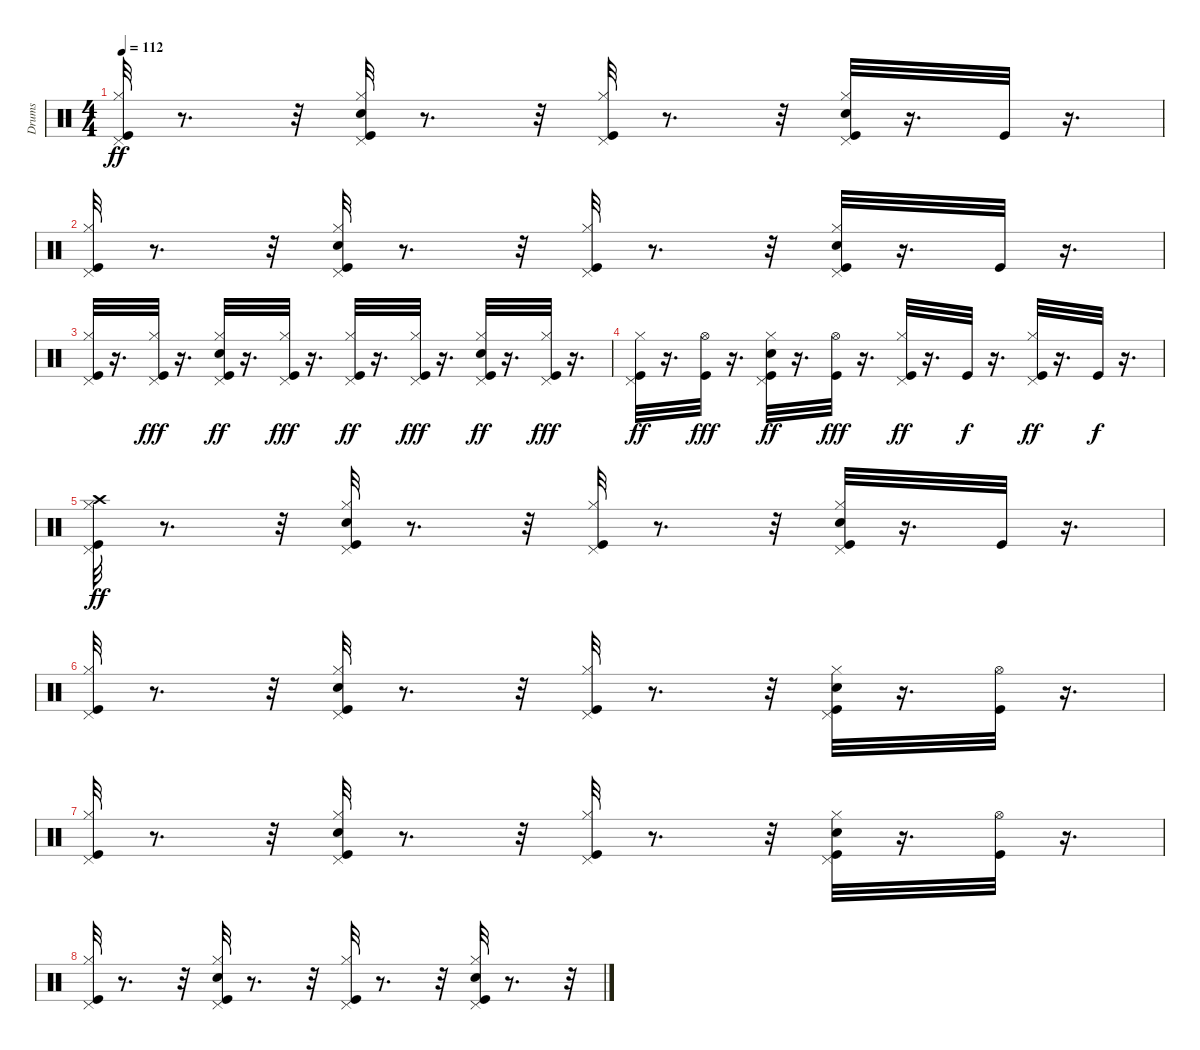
\track ("Drums" "Drums") {instrument percussion}
\staff {score}
\articulation defaults
\ts (4 4)
\tempo 112
\clef neutral
\ks c
("Pedal Hi-Hat (hit)" "Hi-Hat (closed)" "Kick (hit)").32{dy ff} r.8{d} r.32 ("Pedal Hi-Hat (hit)" "Snare (hit) 2" "Hi-Hat (closed)" "Kick (hit)").32 r.8{d} r.32 ("Hi-Hat (closed)" "Kick (hit)" "Pedal Hi-Hat (hit)").32 r.8{d} r.32 ("Hi-Hat (closed)" "Kick (hit)" "Snare (hit) 2" "Pedal Hi-Hat (hit)").32 r.16{d} "Kick (hit)".32 r.16{d} |
("Hi-Hat (closed)" "Kick (hit)" "Pedal Hi-Hat (hit)").32 r.8{d} r.32 ("Pedal Hi-Hat (hit)" "Hi-Hat (closed)" "Snare (hit) 2" "Kick (hit)").32 r.8{d} r.32 ("Kick (hit)" "Pedal Hi-Hat (hit)" "Hi-Hat (closed)").32 r.8{d} r.32 ("Pedal Hi-Hat (hit)" "Kick (hit)" "Snare (hit) 2" "Hi-Hat (closed)").32 r.16{d} "Kick (hit)".32 r.16{d} |
("Pedal Hi-Hat (hit)" "Kick (hit)" "Hi-Hat (closed)").32 r.16{d} ("Pedal Hi-Hat (hit)" "Hi-Hat (closed)" "Kick (hit)").32{dy fff} r.16{d} ("Kick (hit)" "Snare (hit) 2" "Hi-Hat (closed)" "Pedal Hi-Hat (hit)").32{dy ff} r.16{d} ("Hi-Hat (closed)" "Pedal Hi-Hat (hit)" "Kick (hit)").32{dy fff} r.16{d} ("Pedal Hi-Hat (hit)" "Hi-Hat (closed)" "Kick (hit)").32{dy ff} r.16{d} ("Pedal Hi-Hat (hit)" "Hi-Hat (closed)" "Kick (hit)").32{dy fff} r.16{d} ("Snare (hit) 2" "Kick (hit)" "Pedal Hi-Hat (hit)" "Hi-Hat (closed)").32{dy ff} r.16{d} ("Hi-Hat (closed)" "Pedal Hi-Hat (hit)" "Kick (hit)").32{dy fff} r.16{d} |
("Hi-Hat (closed)" "Kick (hit)" "Pedal Hi-Hat (hit)").32{dy ff} r.16{d} ("Hi-Hat (open)" "Kick (hit)").32{dy fff} r.16{d} ("Pedal Hi-Hat (hit)" "Snare (hit) 2" "Hi-Hat (closed)" "Kick (hit)").32{dy ff} r.16{d} ("Hi-Hat (open)" "Kick (hit)").32{dy fff} r.16{d} ("Hi-Hat (closed)" "Kick (hit)" "Pedal Hi-Hat (hit)").32{dy ff} r.16{d} "Kick (hit)".32{dy f} r.16{d} ("Hi-Hat (closed)" "Pedal Hi-Hat (hit)" "Kick (hit)").32{dy ff} r.16{d} "Kick (hit)".32{dy f} r.16{d} |
("Crash high (hit)" "Pedal Hi-Hat (hit)" "Hi-Hat (closed)" "Kick (hit)").32{dy ff} r.8{d} r.32 ("Pedal Hi-Hat (hit)" "Kick (hit)" "Snare (hit) 2" "Hi-Hat (closed)").32 r.8{d} r.32 ("Pedal Hi-Hat (hit)" "Hi-Hat (closed)" "Kick (hit)").32 r.8{d} r.32 ("Hi-Hat (closed)" "Snare (hit) 2" "Pedal Hi-Hat (hit)" "Kick (hit)").32 r.16{d} "Kick (hit)".32 r.16{d} |
("Hi-Hat (closed)" "Pedal Hi-Hat (hit)" "Kick (hit)").32 r.8{d} r.32 ("Snare (hit) 2" "Hi-Hat (closed)" "Kick (hit)" "Pedal Hi-Hat (hit)").32 r.8{d} r.32 ("Pedal Hi-Hat (hit)" "Hi-Hat (closed)" "Kick (hit)").32 r.8{d} r.32 ("Hi-Hat (closed)" "Pedal Hi-Hat (hit)" "Snare (hit) 2" "Kick (hit)").32 r.16{d} ("Hi-Hat (open)" "Kick (hit)").32 r.16{d} |
("Pedal Hi-Hat (hit)" "Hi-Hat (closed)" "Kick (hit)").32 r.8{d} r.32 ("Snare (hit) 2" "Kick (hit)" "Pedal Hi-Hat (hit)" "Hi-Hat (closed)").32 r.8{d} r.32 ("Kick (hit)" "Pedal Hi-Hat (hit)" "Hi-Hat (closed)").32 r.8{d} r.32 ("Snare (hit) 2" "Hi-Hat (closed)" "Kick (hit)" "Pedal Hi-Hat (hit)").32 r.16{d} ("Hi-Hat (open)" "Kick (hit)").32 r.16{d} |
("Hi-Hat (closed)" "Pedal Hi-Hat (hit)" "Kick (hit)").32 r.8{d} r.32 ("Kick (hit)" "Hi-Hat (closed)" "Snare (hit) 2" "Pedal Hi-Hat (hit)").32 r.8{d} r.32 ("Kick (hit)" "Hi-Hat (closed)" "Pedal Hi-Hat (hit)").32 r.8{d} r.32 ("Snare (hit) 2" "Hi-Hat (closed)" "Kick (hit)" "Pedal Hi-Hat (hit)").32 r.8{d} r.32
